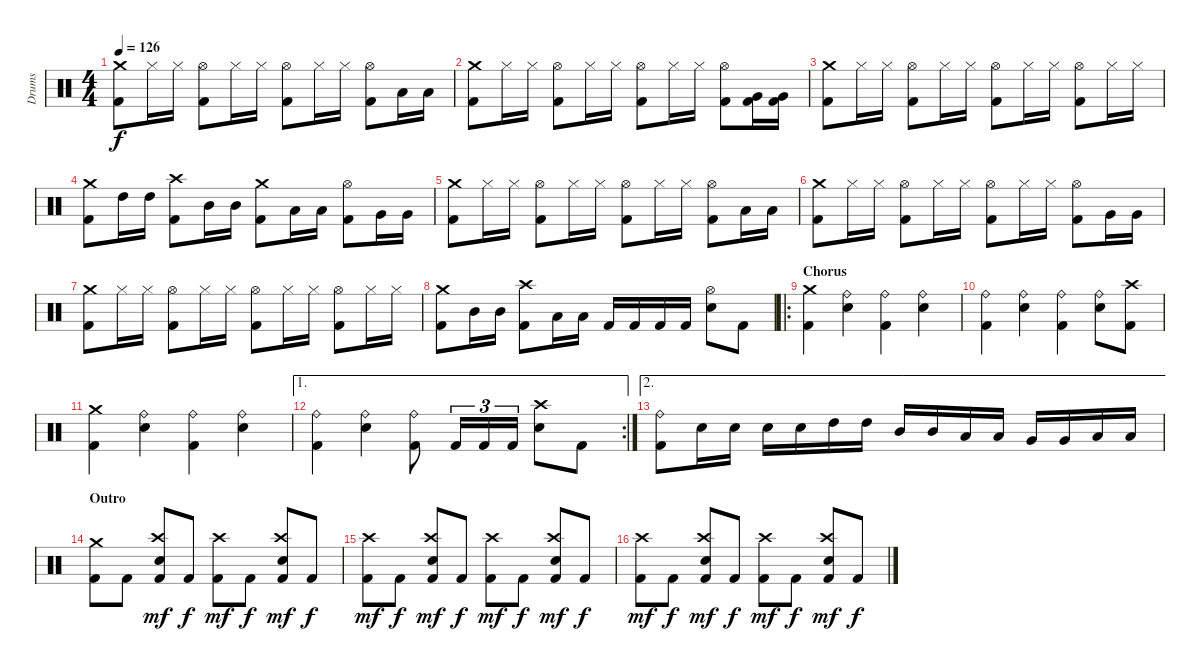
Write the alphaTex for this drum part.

\track ("Drums" "Drums") {instrument percussion}
\staff {score}
\articulation defaults
\ts (4 4)
\tempo 126
\clef neutral
\ks c
("Kick (hit) 2" "Crash medium (hit)").8{dy f} "Hi-Hat (closed)".16 "Hi-Hat (closed)".16 ("Kick (hit) 2" "Hi-Hat (open)").8 "Hi-Hat (closed)".16 "Hi-Hat (closed)".16 ("Kick (hit) 2" "Hi-Hat (open)").8 "Hi-Hat (closed)".16 "Hi-Hat (closed)".16 ("Kick (hit) 2" "Hi-Hat (open)").8 "Low Tom (hit)".16 "Low Tom (hit)".16 |
("Kick (hit) 2" "Crash medium (hit)").8 "Hi-Hat (closed)".16 "Hi-Hat (closed)".16 ("Kick (hit) 2" "Hi-Hat (open)").8 "Hi-Hat (closed)".16 "Hi-Hat (closed)".16 ("Kick (hit) 2" "Hi-Hat (open)").8 "Hi-Hat (closed)".16 "Hi-Hat (closed)".16 ("Kick (hit) 2" "Hi-Hat (open)").8 ("Kick (hit) 2" "Very Low Tom (hit)").16 ("Kick (hit) 2" "Very Low Tom (hit)").16 |
("Kick (hit) 2" "Crash medium (hit)").8 "Hi-Hat (closed)".16 "Hi-Hat (closed)".16 ("Kick (hit) 2" "Hi-Hat (open)").8 "Hi-Hat (closed)".16 "Hi-Hat (closed)".16 ("Kick (hit) 2" "Hi-Hat (open)").8 "Hi-Hat (closed)".16 "Hi-Hat (closed)".16 ("Kick (hit) 2" "Hi-Hat (open)").8 "Hi-Hat (closed)".16 "Hi-Hat (closed)".16 |
("Kick (hit) 2" "Crash medium (hit)").8 "High Tom (hit)".16 "High Tom (hit)".16 ("Kick (hit) 2" "Crash high (hit)").8 "Mid Tom (hit)".16 "Mid Tom (hit)".16 ("Kick (hit) 2" "Crash medium (hit)").8 "Low Tom (hit)".16 "Low Tom (hit)".16 ("Kick (hit) 2" "Hi-Hat (open)").8 "Very Low Tom (hit)".16 "Very Low Tom (hit)".16 |
("Kick (hit) 2" "Crash medium (hit)").8 "Hi-Hat (closed)".16 "Hi-Hat (closed)".16 ("Kick (hit) 2" "Hi-Hat (open)").8 "Hi-Hat (closed)".16 "Hi-Hat (closed)".16 ("Kick (hit) 2" "Hi-Hat (open)").8 "Hi-Hat (closed)".16 "Hi-Hat (closed)".16 ("Kick (hit) 2" "Hi-Hat (open)").8 "Low Tom (hit)".16 "Low Tom (hit)".16 |
("Kick (hit) 2" "Crash medium (hit)").8 "Hi-Hat (closed)".16 "Hi-Hat (closed)".16 ("Kick (hit) 2" "Hi-Hat (open)").8 "Hi-Hat (closed)".16 "Hi-Hat (closed)".16 ("Kick (hit) 2" "Hi-Hat (open)").8 "Hi-Hat (closed)".16 "Hi-Hat (closed)".16 ("Kick (hit) 2" "Hi-Hat (open)").8 "Very Low Tom (hit)".16 "Very Low Tom (hit)".16 |
("Kick (hit) 2" "Crash medium (hit)").8 "Hi-Hat (closed)".16 "Hi-Hat (closed)".16 ("Kick (hit) 2" "Hi-Hat (open)").8 "Hi-Hat (closed)".16 "Hi-Hat (closed)".16 ("Kick (hit) 2" "Hi-Hat (open)").8 "Hi-Hat (closed)".16 "Hi-Hat (closed)".16 ("Kick (hit) 2" "Hi-Hat (open)").8 "Hi-Hat (closed)".16 "Hi-Hat (closed)".16 |
("Kick (hit) 2" "Crash medium (hit)").8 "Mid Tom (hit)".16 "Mid Tom (hit)".16 ("Kick (hit) 2" "Crash high (hit)").8 "Low Tom (hit)".16 "Low Tom (hit)".16 "Kick (hit) 2".16 "Kick (hit) 2".16 "Kick (hit) 2".16 "Kick (hit) 2".16 ("Electric Snare (hit)" "Hi-Hat (open)").8 "Kick (hit) 2".8 |
\ro
\section ("" "Chorus")
("Kick (hit) 2" "Crash medium (hit)").4 ("Electric Snare (hit)" "Ride (bell)").4 ("Kick (hit) 2" "Ride (bell)").4 ("Electric Snare (hit)" "Ride (bell)").4 |
("Kick (hit) 2" "Ride (bell)").4 ("Electric Snare (hit)" "Ride (bell)").4 ("Kick (hit) 2" "Ride (bell)").4 ("Electric Snare (hit)" "Ride (bell)").8 ("Kick (hit) 2" "Crash high (hit)").8 |
("Kick (hit) 2" "Crash medium (hit)").4 ("Electric Snare (hit)" "Ride (bell)").4 ("Kick (hit) 2" "Ride (bell)").4 ("Electric Snare (hit)" "Ride (bell)").4 |
\ae 1
\rc 2
("Kick (hit) 2" "Ride (bell)").4 ("Electric Snare (hit)" "Ride (bell)").4 ("Kick (hit) 2" "Ride (bell)").8 "Kick (hit) 2".16{tu (3 2)} "Kick (hit) 2".16{tu (3 2)} "Kick (hit) 2".16{tu (3 2)} ("Electric Snare (hit)" "Crash high (hit)").8 "Kick (hit) 2".8 |
\ae 2
("Kick (hit) 2" "Ride (bell)").8 "Electric Snare (hit)".16 "Electric Snare (hit)".16 "Electric Snare (hit)".16 "Electric Snare (hit)".16 "High Tom (hit)".16 "High Tom (hit)".16 "Mid Tom (hit)".16 "Mid Tom (hit)".16 "Low Tom (hit)".16 "Low Tom (hit)".16 "Very Low Tom (hit)".16 "Very Low Tom (hit)".16 "Low Floor Tom (hit)".16 "Low Floor Tom (hit)".16 |
\section ("" "Outro")
("Kick (hit) 2" "Crash medium (hit)").8 "Kick (hit) 2".8 ("Kick (hit) 2" "Electric Snare (hit)" "Crash high (hit)").8{dy mf} "Kick (hit) 2".8{dy f} ("Kick (hit) 2" "Crash high (hit)").8{dy mf} "Kick (hit) 2".8{dy f} ("Kick (hit) 2" "Electric Snare (hit)" "Crash high (hit)").8{dy mf} "Kick (hit) 2".8{dy f} |
("Kick (hit) 2" "Crash high (hit)").8{dy mf} "Kick (hit) 2".8{dy f} ("Kick (hit) 2" "Electric Snare (hit)" "Crash high (hit)").8{dy mf} "Kick (hit) 2".8{dy f} ("Kick (hit) 2" "Crash high (hit)").8{dy mf} "Kick (hit) 2".8{dy f} ("Kick (hit) 2" "Electric Snare (hit)" "Crash high (hit)").8{dy mf} "Kick (hit) 2".8{dy f} |
("Kick (hit) 2" "Crash high (hit)").8{dy mf} "Kick (hit) 2".8{dy f} ("Kick (hit) 2" "Electric Snare (hit)" "Crash high (hit)").8{dy mf} "Kick (hit) 2".8{dy f} ("Kick (hit) 2" "Crash high (hit)").8{dy mf} "Kick (hit) 2".8{dy f} ("Kick (hit) 2" "Electric Snare (hit)" "Crash high (hit)").8{dy mf} "Kick (hit) 2".8{dy f}
